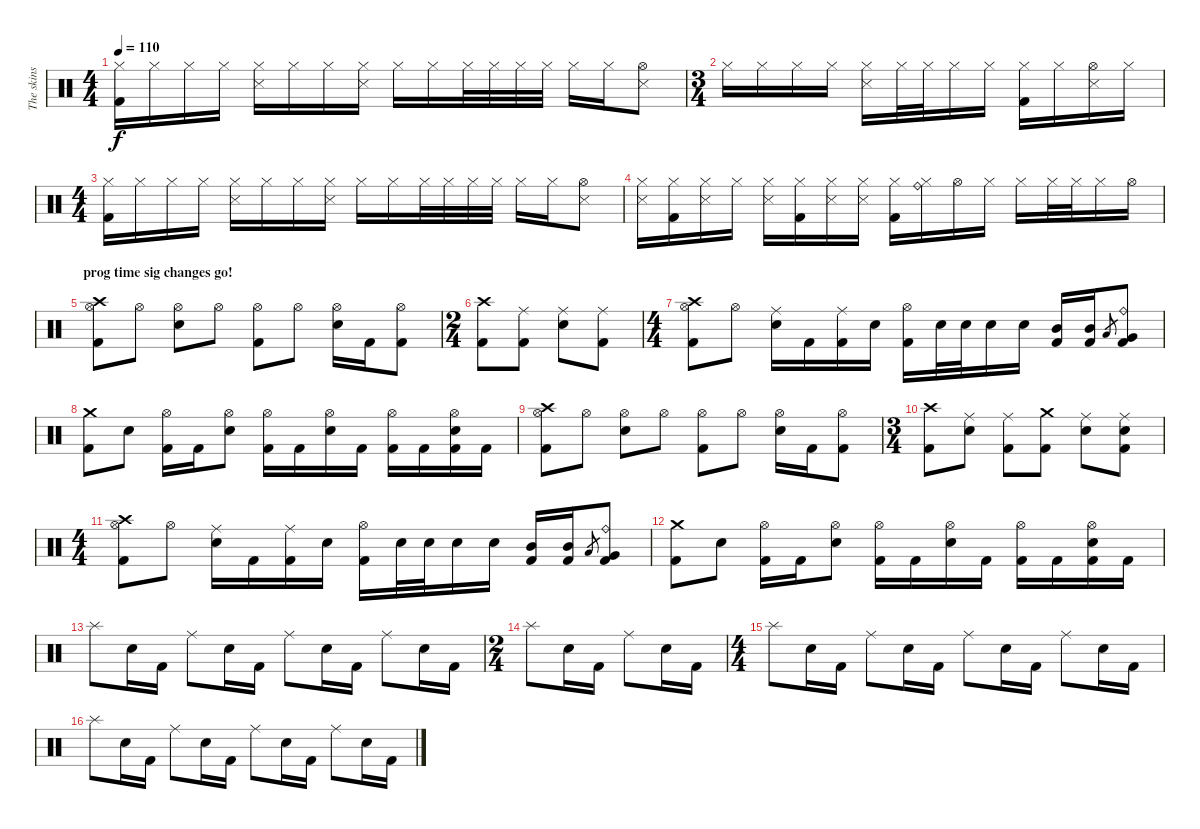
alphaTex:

\track ("The skins" "The skins") {instrument percussion}
\staff {score}
\articulation defaults
\ts (4 4)
\tempo 110
\clef neutral
\ks c
("Hi-Hat (closed)" "Kick (hit) 2").16{dy f} "Hi-Hat (closed)".16 "Hi-Hat (closed)".16 "Hi-Hat (closed)".16 ("Hi-Hat (closed)" "Snare (side stick) 3").16 "Hi-Hat (closed)".16 "Hi-Hat (closed)".16 ("Hi-Hat (closed)" "Snare (side stick) 3").16 "Hi-Hat (closed)".16 "Hi-Hat (closed)".16 "Hi-Hat (closed)".32 "Hi-Hat (closed)".32 "Hi-Hat (closed)".32 "Hi-Hat (closed)".32 "Hi-Hat (closed)".16 "Hi-Hat (closed)".16 ("Hi-Hat (open)" "Snare (side stick) 3").8 |
\ts (3 4)
"Hi-Hat (closed)".16 "Hi-Hat (closed)".16 "Hi-Hat (closed)".16 "Hi-Hat (closed)".16 ("Hi-Hat (closed)" "Snare (side stick) 3").16 "Hi-Hat (closed)".32 "Hi-Hat (closed)".32 "Hi-Hat (closed)".16 "Hi-Hat (closed)".16 ("Hi-Hat (closed)" "Kick (hit) 2").16 "Hi-Hat (closed)".16 ("Hi-Hat (open)" "Snare (side stick) 3").16 "Hi-Hat (closed)".16 |
\ts (4 4)
("Hi-Hat (closed)" "Kick (hit) 2").16 "Hi-Hat (closed)".16 "Hi-Hat (closed)".16 "Hi-Hat (closed)".16 ("Hi-Hat (closed)" "Snare (side stick) 3").16 "Hi-Hat (closed)".16 "Hi-Hat (closed)".16 ("Hi-Hat (closed)" "Snare (side stick) 3").16 "Hi-Hat (closed)".16 "Hi-Hat (closed)".16 "Hi-Hat (closed)".32 "Hi-Hat (closed)".32 "Hi-Hat (closed)".32 "Hi-Hat (closed)".32 "Hi-Hat (closed)".16 "Hi-Hat (closed)".16 ("Hi-Hat (open)" "Snare (side stick) 3").8 |
("Hi-Hat (closed)" "Snare (side stick) 3").16 ("Hi-Hat (closed)" "Kick (hit) 2").16 ("Hi-Hat (closed)" "Snare (side stick) 3").16 "Hi-Hat (closed)".16 ("Hi-Hat (closed)" "Snare (side stick) 3").16 ("Hi-Hat (closed)" "Kick (hit) 2").16 ("Hi-Hat (closed)" "Snare (side stick) 3").16 ("Hi-Hat (closed)" "Snare (side stick) 3").16 ("Hi-Hat (closed)" "Kick (hit) 2").16 ("Ride (bell)" "Hi-Hat (closed)").16 "Hi-Hat (open)".16 "Hi-Hat (closed)".16 "Hi-Hat (closed)".16 "Hi-Hat (closed)".32 "Hi-Hat (closed)".32 "Hi-Hat (closed)".16 "Hi-Hat (open)".16 |
\section ("" "prog time sig changes go!")
("Crash high (hit)" "Hi-Hat (open)" "Kick (hit) 2").8 "Hi-Hat (open)".8 ("Hi-Hat (open)" "Electric Snare (hit)").8 "Hi-Hat (open)".8 ("Hi-Hat (open)" "Kick (hit) 2").8 "Hi-Hat (open)".8 ("Hi-Hat (open)" "Electric Snare (hit)").16 "Kick (hit) 2".16 ("Hi-Hat (open)" "Kick (hit) 2").8 |
\ts (2 4)
("Crash high (hit)" "Kick (hit) 2").8 ("Ride (middle)" "Kick (hit) 2").8 ("Ride (middle)" "Electric Snare (hit)").8 ("Ride (middle)" "Kick (hit) 2").8 |
\ts (4 4)
("Crash high (hit)" "Hi-Hat (open)" "Kick (hit) 2").8 "Hi-Hat (open)".8 ("Ride (middle)" "Electric Snare (hit)").16 "Kick (hit) 2".16 ("Ride (middle)" "Kick (hit) 2").16 "Electric Snare (hit)".16 ("Hi-Hat (open)" "Kick (hit) 2").16 "Electric Snare (hit)".32 "Electric Snare (hit)".32 "Electric Snare (hit)".16 "Electric Snare (hit)".16 ("Mid Tom (hit)" "Kick (hit) 2").16 ("Mid Tom (hit)" "Kick (hit) 2").16 "Low Tom (hit)".8{gr} ("Ride (bell)" "Very Low Tom (hit)" "Kick (hit) 2").8 |
("Crash medium (hit)" "Kick (hit) 2").8 "Electric Snare (hit)".8 ("Hi-Hat (open)" "Kick (hit) 2").16 "Kick (hit) 2".16 ("Hi-Hat (open)" "Electric Snare (hit)").8 ("Hi-Hat (open)" "Kick (hit) 2").16 "Kick (hit) 2".16 ("Hi-Hat (open)" "Electric Snare (hit)").16 "Kick (hit) 2".16 ("Hi-Hat (open)" "Kick (hit) 2").16 "Kick (hit) 2".16 ("Hi-Hat (open)" "Electric Snare (hit)" "Kick (hit) 2").16 "Kick (hit) 2".16 |
("Crash high (hit)" "Hi-Hat (open)" "Kick (hit) 2").8 "Hi-Hat (open)".8 ("Hi-Hat (open)" "Electric Snare (hit)").8 "Hi-Hat (open)".8 ("Hi-Hat (open)" "Kick (hit) 2").8 "Hi-Hat (open)".8 ("Hi-Hat (open)" "Electric Snare (hit)").16 "Kick (hit) 2".16 ("Hi-Hat (open)" "Kick (hit) 2").8 |
\ts (3 4)
("Crash high (hit)" "Kick (hit) 2").8 ("Ride (middle)" "Electric Snare (hit)").8 ("Ride (middle)" "Kick (hit) 2").8 ("Crash medium (hit)" "Kick (hit) 2").8 ("Ride (middle)" "Electric Snare (hit)").8 ("Ride (middle)" "Electric Snare (hit)" "Kick (hit) 2").8 |
\ts (4 4)
("Crash high (hit)" "Hi-Hat (open)" "Kick (hit) 2").8 "Hi-Hat (open)".8 ("Ride (middle)" "Electric Snare (hit)").16 "Kick (hit) 2".16 ("Ride (middle)" "Kick (hit) 2").16 "Electric Snare (hit)".16 ("Hi-Hat (open)" "Kick (hit) 2").16 "Electric Snare (hit)".32 "Electric Snare (hit)".32 "Electric Snare (hit)".16 "Electric Snare (hit)".16 ("Mid Tom (hit)" "Kick (hit) 2").16 ("Mid Tom (hit)" "Kick (hit) 2").16 "Low Tom (hit)".8{gr} ("Ride (bell)" "Very Low Tom (hit)" "Kick (hit) 2").8 |
("Crash medium (hit)" "Kick (hit) 2").8 "Electric Snare (hit)".8 ("Hi-Hat (open)" "Kick (hit) 2").16 "Kick (hit) 2".16 ("Hi-Hat (open)" "Electric Snare (hit)").8 ("Hi-Hat (open)" "Kick (hit) 2").16 "Kick (hit) 2".16 ("Hi-Hat (open)" "Electric Snare (hit)").16 "Kick (hit) 2".16 ("Hi-Hat (open)" "Kick (hit) 2").16 "Kick (hit) 2".16 ("Hi-Hat (open)" "Electric Snare (hit)" "Kick (hit) 2").16 "Kick (hit) 2".16 |
"Splash (hit)".8 "Electric Snare (hit)".16 "Kick (hit) 2".16 "Ride (middle)".8 "Electric Snare (hit)".16 "Kick (hit) 2".16 "Ride (middle)".8 "Electric Snare (hit)".16 "Kick (hit) 2".16 "Ride (middle)".8 "Electric Snare (hit)".16 "Kick (hit) 2".16 |
\ts (2 4)
"Splash (hit)".8 "Electric Snare (hit)".16 "Kick (hit) 2".16 "Ride (middle)".8 "Electric Snare (hit)".16 "Kick (hit) 2".16 |
\ts (4 4)
"Splash (hit)".8 "Electric Snare (hit)".16 "Kick (hit) 2".16 "Ride (middle)".8 "Electric Snare (hit)".16 "Kick (hit) 2".16 "Ride (middle)".8 "Electric Snare (hit)".16 "Kick (hit) 2".16 "Ride (middle)".8 "Electric Snare (hit)".16 "Kick (hit) 2".16 |
"Splash (hit)".8 "Electric Snare (hit)".16 "Kick (hit) 2".16 "Ride (middle)".8 "Electric Snare (hit)".16 "Kick (hit) 2".16 "Ride (middle)".8 "Electric Snare (hit)".16 "Kick (hit) 2".16 "Ride (middle)".8 "Electric Snare (hit)".16 "Kick (hit) 2".16
